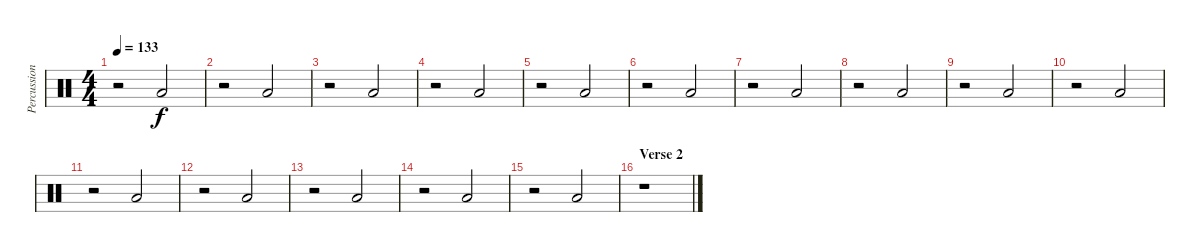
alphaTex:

\track ("Percussion" "Percussion") {instrument percussion}
\staff {score}
\articulation defaults
\ts (4 4)
\tempo 133
\clef neutral
\ks c
r.2{dy f} "Low Tom (hit)".2 |
r.2 "Low Tom (hit)".2 |
r.2 "Low Tom (hit)".2 |
r.2 "Low Tom (hit)".2 |
r.2 "Low Tom (hit)".2 |
r.2 "Low Tom (hit)".2 |
r.2 "Low Tom (hit)".2 |
r.2 "Low Tom (hit)".2 |
r.2 "Low Tom (hit)".2 |
r.2 "Low Tom (hit)".2 |
r.2 "Low Tom (hit)".2 |
r.2 "Low Tom (hit)".2 |
r.2 "Low Tom (hit)".2 |
r.2 "Low Tom (hit)".2 |
r.2 "Low Tom (hit)".2 |
\section ("" "Verse 2")
r.1
